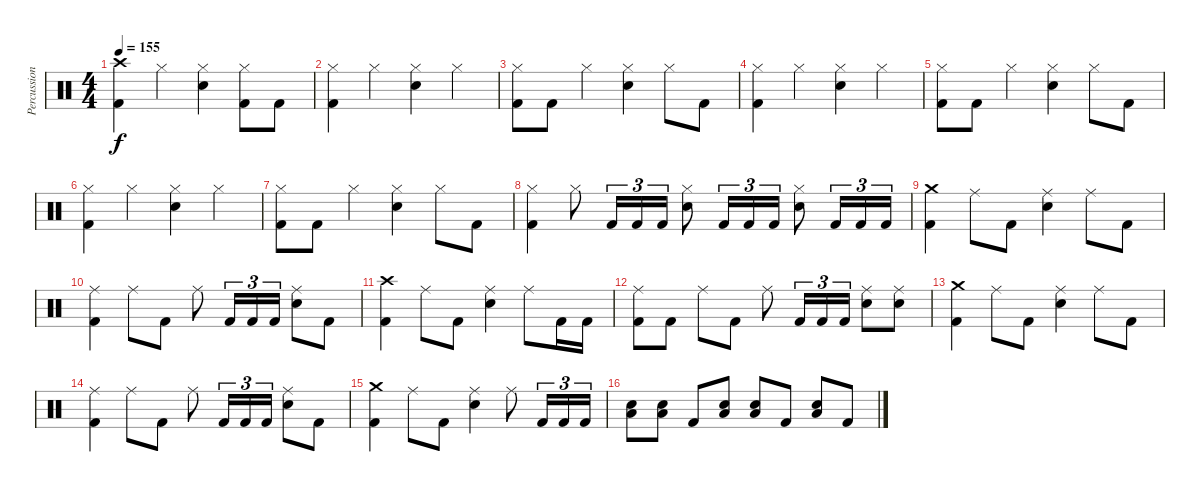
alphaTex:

\track ("Percussion" "Percussion") {instrument percussion}
\staff {score}
\articulation defaults
\ts (4 4)
\tempo 155
\clef neutral
\ks c
("Crash high (hit)" "Kick (hit) 2").4{dy f} "Hi-Hat (closed)".4 ("Hi-Hat (closed)" "Electric Snare (hit)").4 ("Hi-Hat (closed)" "Kick (hit) 2").8 "Kick (hit) 2".8 |
("Hi-Hat (closed)" "Kick (hit) 2").4 "Hi-Hat (closed)".4 ("Hi-Hat (closed)" "Electric Snare (hit)").4 "Hi-Hat (closed)".4 |
("Hi-Hat (closed)" "Kick (hit) 2").8 "Kick (hit) 2".8 "Hi-Hat (closed)".4 ("Hi-Hat (closed)" "Electric Snare (hit)").4 "Hi-Hat (closed)".8 "Kick (hit) 2".8 |
("Hi-Hat (closed)" "Kick (hit) 2").4 "Hi-Hat (closed)".4 ("Hi-Hat (closed)" "Electric Snare (hit)").4 "Hi-Hat (closed)".4 |
("Hi-Hat (closed)" "Kick (hit) 2").8 "Kick (hit) 2".8 "Hi-Hat (closed)".4 ("Hi-Hat (closed)" "Electric Snare (hit)").4 "Hi-Hat (closed)".8 "Kick (hit) 2".8 |
("Hi-Hat (closed)" "Kick (hit) 2").4 "Hi-Hat (closed)".4 ("Hi-Hat (closed)" "Electric Snare (hit)").4 "Hi-Hat (closed)".4 |
("Hi-Hat (closed)" "Kick (hit) 2").8 "Kick (hit) 2".8 "Hi-Hat (closed)".4 ("Hi-Hat (closed)" "Electric Snare (hit)").4 "Hi-Hat (closed)".8 "Kick (hit) 2".8 |
("Hi-Hat (closed)" "Kick (hit) 2").4 "Hi-Hat (closed)".8 "Kick (hit) 2".16{tu (3 2)} "Kick (hit) 2".16{tu (3 2)} "Kick (hit) 2".16{tu (3 2)} ("Hi-Hat (closed)" "Electric Snare (hit)").8 "Kick (hit) 2".16{tu (3 2)} "Kick (hit) 2".16{tu (3 2)} "Kick (hit) 2".16{tu (3 2)} ("Hi-Hat (closed)" "Electric Snare (hit)").8 "Kick (hit) 2".16{tu (3 2)} "Kick (hit) 2".16{tu (3 2)} "Kick (hit) 2".16{tu (3 2)} |
("Crash medium (hit)" "Kick (hit) 2").4 "Ride (middle)".8 "Kick (hit) 2".8 ("Ride (middle)" "Electric Snare (hit)").4 "Ride (middle)".8 "Kick (hit) 2".8 |
("Ride (middle)" "Kick (hit) 2").4 "Ride (middle)".8 "Kick (hit) 2".8 "Ride (middle)".8 "Kick (hit) 2".16{tu (3 2)} "Kick (hit) 2".16{tu (3 2)} "Kick (hit) 2".16{tu (3 2)} ("Ride (middle)" "Electric Snare (hit)").8 "Kick (hit) 2".8 |
("Crash high (hit)" "Kick (hit) 2").4 "Ride (middle)".8 "Kick (hit) 2".8 ("Ride (middle)" "Electric Snare (hit)").4 "Ride (middle)".8 "Kick (hit) 2".16 "Kick (hit) 2".16 |
("Ride (middle)" "Kick (hit) 2").8 "Kick (hit) 2".8 "Ride (middle)".8 "Kick (hit) 2".8 "Ride (middle)".8 "Kick (hit) 2".16{tu (3 2)} "Kick (hit) 2".16{tu (3 2)} "Kick (hit) 2".16{tu (3 2)} ("Ride (middle)" "Electric Snare (hit)").8 ("Ride (middle)" "Electric Snare (hit)").8 |
("Crash medium (hit)" "Kick (hit) 2").4 "Ride (middle)".8 "Kick (hit) 2".8 ("Ride (middle)" "Electric Snare (hit)").4 "Ride (middle)".8 "Kick (hit) 2".8 |
("Ride (middle)" "Kick (hit) 2").4 "Ride (middle)".8 "Kick (hit) 2".8 "Ride (middle)".8 "Kick (hit) 2".16{tu (3 2)} "Kick (hit) 2".16{tu (3 2)} "Kick (hit) 2".16{tu (3 2)} ("Ride (middle)" "Electric Snare (hit)").8 "Kick (hit) 2".8 |
("Crash medium (hit)" "Kick (hit) 2").4 "Ride (middle)".8 "Kick (hit) 2".8 ("Ride (middle)" "Electric Snare (hit)").4 "Ride (middle)".8 "Kick (hit) 2".16{tu (3 2)} "Kick (hit) 2".16{tu (3 2)} "Kick (hit) 2".16{tu (3 2)} |
("Electric Snare (hit)" "Low Tom (hit)").8 ("Electric Snare (hit)" "Low Tom (hit)").8 "Kick (hit) 2".8 ("Electric Snare (hit)" "Low Tom (hit)").8 ("Electric Snare (hit)" "Low Tom (hit)").8 "Kick (hit) 2".8 ("Electric Snare (hit)" "Low Tom (hit)").8 "Kick (hit) 2".8
